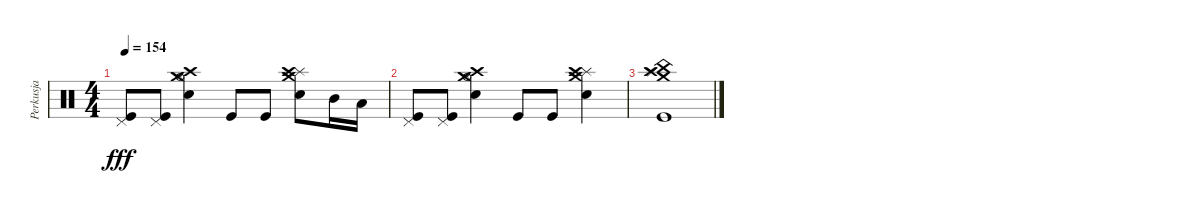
\track ("Perkusja" "Perkusja") {instrument percussion}
\staff {score}
\articulation defaults
\ts (4 4)
\tempo 154
\clef neutral
\ks c
("Pedal Hi-Hat (hit)" "Kick (hit)").8{dy fff} ("Pedal Hi-Hat (hit)" "Kick (hit)").8 ("Crash high (hit)" "Crash medium (hit)" "Hi-Hat (open)" "Snare (hit) 2").4 "Kick (hit)".8 "Kick (hit)".8 ("Crash medium (hit)" "Splash (hit)" "Crash high (hit)" "Snare (hit) 2").8 "Mid Tom (hit)".16 "Low Tom (hit)".16 |
("Pedal Hi-Hat (hit)" "Kick (hit)").8 ("Pedal Hi-Hat (hit)" "Kick (hit)").8 ("Crash high (hit)" "Crash medium (hit)" "Hi-Hat (open)" "Snare (hit) 2").4 "Kick (hit)".8 "Kick (hit)".8 ("Crash medium (hit)" "Splash (hit)" "Crash high (hit)" "Snare (hit) 2").4 |
("Crash medium (hit)" "Splash (hit)" "Crash high (hit)" "China (hit)" "Kick (hit)").1
